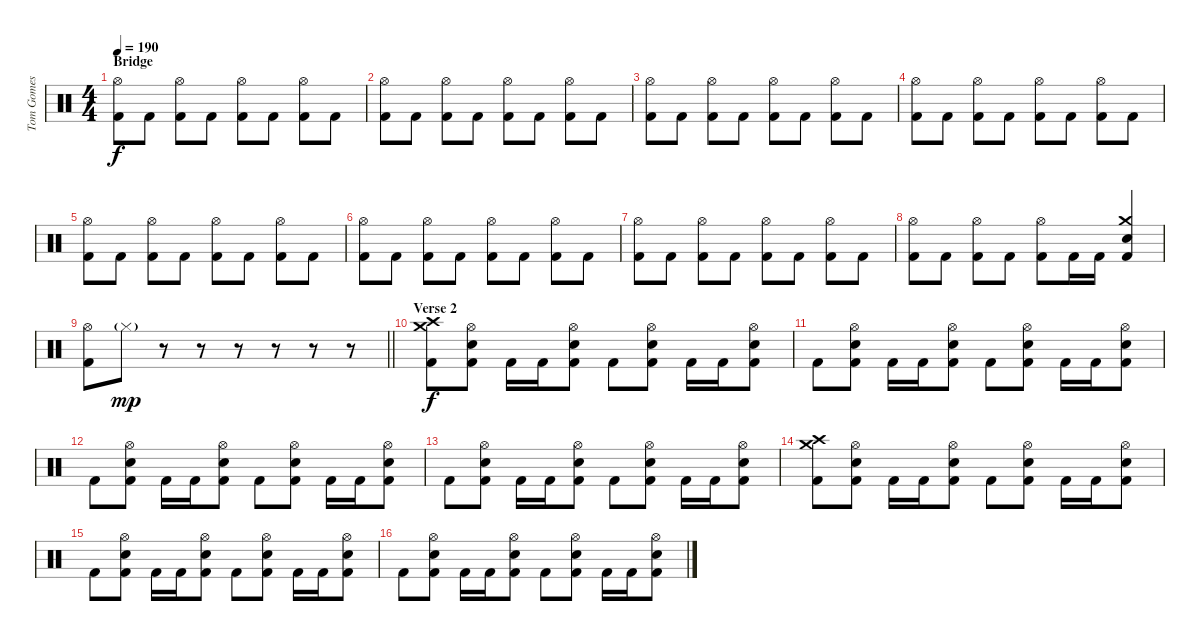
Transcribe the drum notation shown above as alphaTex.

\track ("Tom Gomes" "Tom Gomes") {instrument percussion}
\staff {score}
\articulation defaults
\ts (4 4)
\section ("" "Bridge")
\tempo 190
\clef neutral
\ks c
("Hi-Hat (open)" "Kick (hit) 2").8{dy f} "Kick (hit) 2".8 ("Hi-Hat (open)" "Kick (hit) 2").8 "Kick (hit) 2".8 ("Hi-Hat (open)" "Kick (hit) 2").8 "Kick (hit) 2".8 ("Hi-Hat (open)" "Kick (hit) 2").8 "Kick (hit) 2".8 |
("Hi-Hat (open)" "Kick (hit) 2").8 "Kick (hit) 2".8 ("Hi-Hat (open)" "Kick (hit) 2").8 "Kick (hit) 2".8 ("Hi-Hat (open)" "Kick (hit) 2").8 "Kick (hit) 2".8 ("Hi-Hat (open)" "Kick (hit) 2").8 "Kick (hit) 2".8 |
("Hi-Hat (open)" "Kick (hit) 2").8 "Kick (hit) 2".8 ("Hi-Hat (open)" "Kick (hit) 2").8 "Kick (hit) 2".8 ("Hi-Hat (open)" "Kick (hit) 2").8 "Kick (hit) 2".8 ("Hi-Hat (open)" "Kick (hit) 2").8 "Kick (hit) 2".8 |
("Hi-Hat (open)" "Kick (hit) 2").8 "Kick (hit) 2".8 ("Hi-Hat (open)" "Kick (hit) 2").8 "Kick (hit) 2".8 ("Hi-Hat (open)" "Kick (hit) 2").8 "Kick (hit) 2".8 ("Hi-Hat (open)" "Kick (hit) 2").8 "Kick (hit) 2".8 |
("Hi-Hat (open)" "Kick (hit) 2").8 "Kick (hit) 2".8 ("Hi-Hat (open)" "Kick (hit) 2").8 "Kick (hit) 2".8 ("Hi-Hat (open)" "Kick (hit) 2").8 "Kick (hit) 2".8 ("Hi-Hat (open)" "Kick (hit) 2").8 "Kick (hit) 2".8 |
("Hi-Hat (open)" "Kick (hit) 2").8 "Kick (hit) 2".8 ("Hi-Hat (open)" "Kick (hit) 2").8 "Kick (hit) 2".8 ("Hi-Hat (open)" "Kick (hit) 2").8 "Kick (hit) 2".8 ("Hi-Hat (open)" "Kick (hit) 2").8 "Kick (hit) 2".8 |
("Hi-Hat (open)" "Kick (hit) 2").8 "Kick (hit) 2".8 ("Hi-Hat (open)" "Kick (hit) 2").8 "Kick (hit) 2".8 ("Hi-Hat (open)" "Kick (hit) 2").8 "Kick (hit) 2".8 ("Hi-Hat (open)" "Kick (hit) 2").8 "Kick (hit) 2".8 |
("Hi-Hat (open)" "Kick (hit) 2").8 "Kick (hit) 2".8 ("Hi-Hat (open)" "Kick (hit) 2").8 "Kick (hit) 2".8 ("Hi-Hat (open)" "Kick (hit) 2").8 "Kick (hit) 2".16 "Kick (hit) 2".16 ("Crash medium (hit)" "Snare (hit) 2" "Kick (hit) 2").4 |
\barLineRight lightlight
("Hi-Hat (open)" "Kick (hit) 2").8 "Hi-Hat (closed)"{g}.8{dy mp} r.8 r.8 r.8 r.8 r.8 r.8 |
\section ("" "Verse 2")
("Crash high (hit)" "Crash medium (hit)" "Kick (hit) 2").8{dy f} ("Hi-Hat (open)" "Snare (hit) 2" "Kick (hit) 2").8 "Kick (hit) 2".16 "Kick (hit) 2".16 ("Hi-Hat (open)" "Snare (hit) 2" "Kick (hit) 2").8 "Kick (hit) 2".8 ("Hi-Hat (open)" "Snare (hit) 2" "Kick (hit) 2").8 "Kick (hit) 2".16 "Kick (hit) 2".16 ("Hi-Hat (open)" "Snare (hit) 2" "Kick (hit) 2").8 |
"Kick (hit) 2".8 ("Hi-Hat (open)" "Snare (hit) 2" "Kick (hit) 2").8 "Kick (hit) 2".16 "Kick (hit) 2".16 ("Hi-Hat (open)" "Snare (hit) 2" "Kick (hit) 2").8 "Kick (hit) 2".8 ("Hi-Hat (open)" "Snare (hit) 2" "Kick (hit) 2").8 "Kick (hit) 2".16 "Kick (hit) 2".16 ("Hi-Hat (open)" "Snare (hit) 2" "Kick (hit) 2").8 |
"Kick (hit) 2".8 ("Hi-Hat (open)" "Snare (hit) 2" "Kick (hit) 2").8 "Kick (hit) 2".16 "Kick (hit) 2".16 ("Hi-Hat (open)" "Snare (hit) 2" "Kick (hit) 2").8 "Kick (hit) 2".8 ("Hi-Hat (open)" "Snare (hit) 2" "Kick (hit) 2").8 "Kick (hit) 2".16 "Kick (hit) 2".16 ("Hi-Hat (open)" "Snare (hit) 2" "Kick (hit) 2").8 |
"Kick (hit) 2".8 ("Hi-Hat (open)" "Snare (hit) 2" "Kick (hit) 2").8 "Kick (hit) 2".16 "Kick (hit) 2".16 ("Hi-Hat (open)" "Snare (hit) 2" "Kick (hit) 2").8 "Kick (hit) 2".8 ("Hi-Hat (open)" "Snare (hit) 2" "Kick (hit) 2").8 "Kick (hit) 2".16 "Kick (hit) 2".16 ("Hi-Hat (open)" "Snare (hit) 2" "Kick (hit) 2").8 |
("Crash high (hit)" "Crash medium (hit)" "Kick (hit) 2").8 ("Hi-Hat (open)" "Snare (hit) 2" "Kick (hit) 2").8 "Kick (hit) 2".16 "Kick (hit) 2".16 ("Hi-Hat (open)" "Snare (hit) 2" "Kick (hit) 2").8 "Kick (hit) 2".8 ("Hi-Hat (open)" "Snare (hit) 2" "Kick (hit) 2").8 "Kick (hit) 2".16 "Kick (hit) 2".16 ("Hi-Hat (open)" "Snare (hit) 2" "Kick (hit) 2").8 |
"Kick (hit) 2".8 ("Hi-Hat (open)" "Snare (hit) 2" "Kick (hit) 2").8 "Kick (hit) 2".16 "Kick (hit) 2".16 ("Hi-Hat (open)" "Snare (hit) 2" "Kick (hit) 2").8 "Kick (hit) 2".8 ("Hi-Hat (open)" "Snare (hit) 2" "Kick (hit) 2").8 "Kick (hit) 2".16 "Kick (hit) 2".16 ("Hi-Hat (open)" "Snare (hit) 2" "Kick (hit) 2").8 |
"Kick (hit) 2".8 ("Hi-Hat (open)" "Snare (hit) 2" "Kick (hit) 2").8 "Kick (hit) 2".16 "Kick (hit) 2".16 ("Hi-Hat (open)" "Snare (hit) 2" "Kick (hit) 2").8 "Kick (hit) 2".8 ("Hi-Hat (open)" "Snare (hit) 2" "Kick (hit) 2").8 "Kick (hit) 2".16 "Kick (hit) 2".16 ("Hi-Hat (open)" "Snare (hit) 2" "Kick (hit) 2").8
